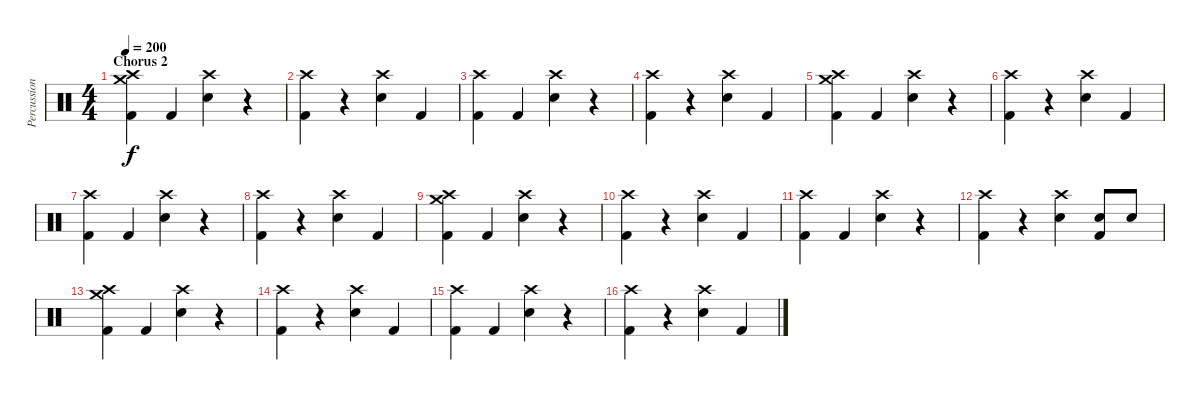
\track ("Percussion" "Percussion") {instrument percussion}
\staff {score}
\articulation defaults
\ts (4 4)
\section ("" "Chorus 2")
\tempo 200
\clef neutral
\ks c
("Crash high (hit)" "Crash medium (hit)" "Kick (hit) 2").4{dy f} "Kick (hit) 2".4 ("Crash high (hit)" "Electric Snare (hit)").4 r.4 |
("Crash high (hit)" "Kick (hit) 2").4 r.4 ("Crash high (hit)" "Electric Snare (hit)").4 "Kick (hit) 2".4 |
("Crash high (hit)" "Kick (hit) 2").4 "Kick (hit) 2".4 ("Crash high (hit)" "Electric Snare (hit)").4 r.4 |
("Crash high (hit)" "Kick (hit) 2").4 r.4 ("Crash high (hit)" "Electric Snare (hit)").4 "Kick (hit) 2".4 |
("Crash high (hit)" "Crash medium (hit)" "Kick (hit) 2").4 "Kick (hit) 2".4 ("Crash high (hit)" "Electric Snare (hit)").4 r.4 |
("Crash high (hit)" "Kick (hit) 2").4 r.4 ("Crash high (hit)" "Electric Snare (hit)").4 "Kick (hit) 2".4 |
("Crash high (hit)" "Kick (hit) 2").4 "Kick (hit) 2".4 ("Crash high (hit)" "Electric Snare (hit)").4 r.4 |
("Crash high (hit)" "Kick (hit) 2").4 r.4 ("Crash high (hit)" "Electric Snare (hit)").4 "Kick (hit) 2".4 |
("Crash high (hit)" "Crash medium (hit)" "Kick (hit) 2").4 "Kick (hit) 2".4 ("Crash high (hit)" "Electric Snare (hit)").4 r.4 |
("Crash high (hit)" "Kick (hit) 2").4 r.4 ("Crash high (hit)" "Electric Snare (hit)").4 "Kick (hit) 2".4 |
("Crash high (hit)" "Kick (hit) 2").4 "Kick (hit) 2".4 ("Crash high (hit)" "Electric Snare (hit)").4 r.4 |
("Crash high (hit)" "Kick (hit) 2").4 r.4 ("Crash high (hit)" "Electric Snare (hit)").4 ("Electric Snare (hit)" "Kick (hit) 2").8 "Electric Snare (hit)".8 |
("Crash high (hit)" "Crash medium (hit)" "Kick (hit) 2").4 "Kick (hit) 2".4 ("Crash high (hit)" "Electric Snare (hit)").4 r.4 |
("Crash high (hit)" "Kick (hit) 2").4 r.4 ("Crash high (hit)" "Electric Snare (hit)").4 "Kick (hit) 2".4 |
("Crash high (hit)" "Kick (hit) 2").4 "Kick (hit) 2".4 ("Crash high (hit)" "Electric Snare (hit)").4 r.4 |
("Crash high (hit)" "Kick (hit) 2").4 r.4 ("Crash high (hit)" "Electric Snare (hit)").4 "Kick (hit) 2".4
